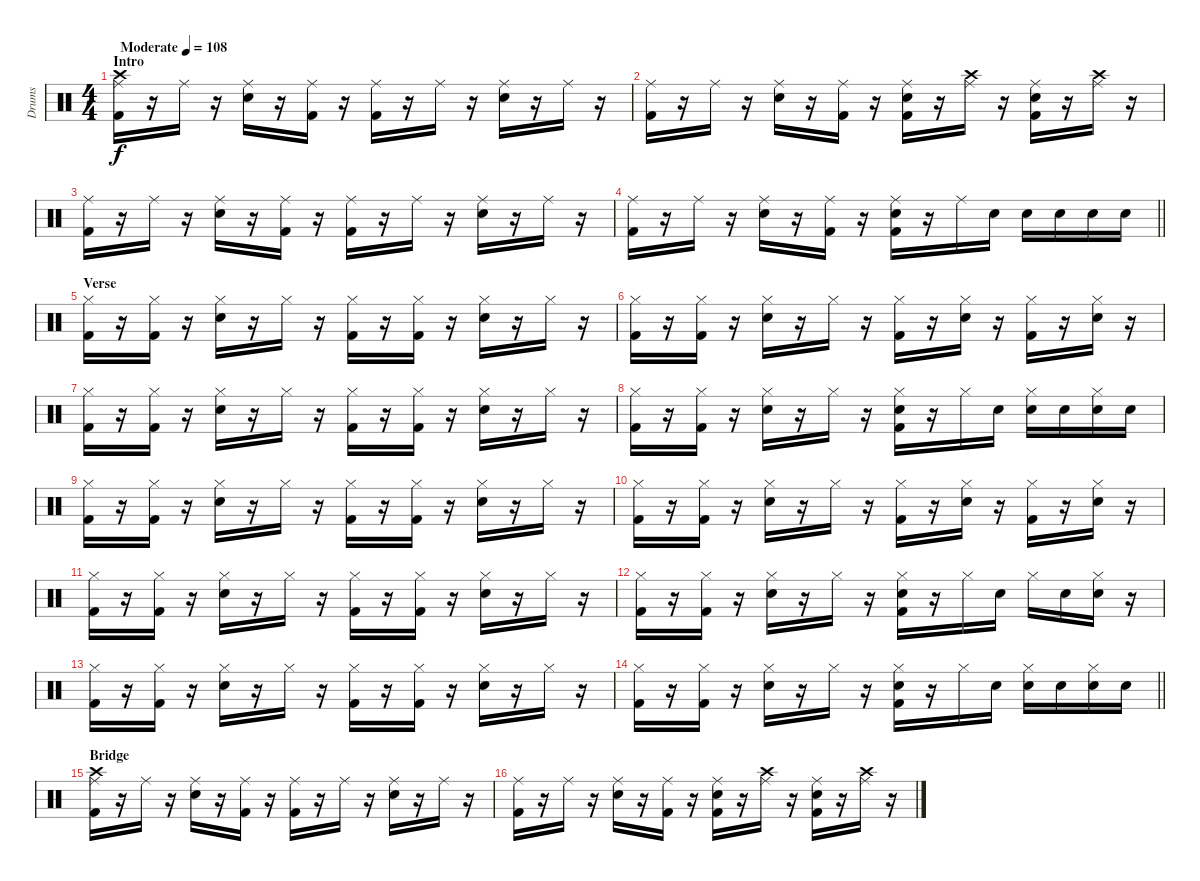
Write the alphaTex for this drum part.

\track ("Drums" "Drums") {instrument percussion}
\staff {score}
\articulation defaults
\ts (4 4)
\section ("" "Intro")
\tempo (108 "Moderate")
\clef neutral
\ks c
("Crash high (hit)" "Ride (middle)" "Kick (hit) 2").16{dy f} r.16 "Ride (middle)".16 r.16 ("Snare (hit) 2" "Ride (middle)").16 r.16 ("Ride (middle)" "Kick (hit) 2").16 r.16 ("Ride (middle)" "Kick (hit) 2").16 r.16 "Ride (middle)".16 r.16 ("Snare (hit) 2" "Ride (middle)").16 r.16 "Ride (middle)".16 r.16 |
("Ride (middle)" "Kick (hit) 2").16 r.16 "Ride (middle)".16 r.16 ("Snare (hit) 2" "Ride (middle)").16 r.16 ("Ride (middle)" "Kick (hit) 2").16 r.16 ("Snare (hit) 2" "Ride (middle)" "Kick (hit) 2").16 r.16 ("Crash high (hit)" "Ride (middle)").16 r.16 ("Snare (hit) 2" "Ride (middle)" "Kick (hit) 2").16 r.16 ("Crash high (hit)" "Ride (middle)").16 r.16 |
("Ride (middle)" "Kick (hit) 2").16 r.16 "Ride (middle)".16 r.16 ("Snare (hit) 2" "Ride (middle)").16 r.16 ("Ride (middle)" "Kick (hit) 2").16 r.16 ("Ride (middle)" "Kick (hit) 2").16 r.16 "Ride (middle)".16 r.16 ("Snare (hit) 2" "Ride (middle)").16 r.16 "Ride (middle)".16 r.16 |
\barLineRight lightlight
("Ride (middle)" "Kick (hit) 2").16 r.16 "Ride (middle)".16 r.16 ("Snare (hit) 2" "Ride (middle)").16 r.16 ("Ride (middle)" "Kick (hit) 2").16 r.16 ("Snare (hit) 2" "Ride (middle)" "Kick (hit) 2").16 r.16 "Ride (middle)".16 "Snare (hit) 2".16 "Snare (hit) 2".16 "Snare (hit) 2".16 "Snare (hit) 2".16 "Snare (hit) 2".16 |
\section ("" "Verse")
("Hi-Hat (closed)" "Kick (hit) 2").16 r.16 ("Hi-Hat (closed)" "Kick (hit) 2").16 r.16 ("Snare (hit) 2" "Hi-Hat (closed)").16 r.16 "Hi-Hat (closed)".16 r.16 ("Hi-Hat (closed)" "Kick (hit) 2").16 r.16 ("Hi-Hat (closed)" "Kick (hit) 2").16 r.16 ("Snare (hit) 2" "Hi-Hat (closed)").16 r.16 "Hi-Hat (closed)".16 r.16 |
("Hi-Hat (closed)" "Kick (hit) 2").16 r.16 ("Hi-Hat (closed)" "Kick (hit) 2").16 r.16 ("Snare (hit) 2" "Hi-Hat (closed)").16 r.16 "Hi-Hat (closed)".16 r.16 ("Hi-Hat (closed)" "Kick (hit) 2").16 r.16 ("Snare (hit) 2" "Hi-Hat (closed)").16 r.16 ("Hi-Hat (closed)" "Kick (hit) 2").16 r.16 ("Snare (hit) 2" "Hi-Hat (closed)").16 r.16 |
("Hi-Hat (closed)" "Kick (hit) 2").16 r.16 ("Hi-Hat (closed)" "Kick (hit) 2").16 r.16 ("Snare (hit) 2" "Hi-Hat (closed)").16 r.16 "Hi-Hat (closed)".16 r.16 ("Hi-Hat (closed)" "Kick (hit) 2").16 r.16 ("Hi-Hat (closed)" "Kick (hit) 2").16 r.16 ("Snare (hit) 2" "Hi-Hat (closed)").16 r.16 "Hi-Hat (closed)".16 r.16 |
("Hi-Hat (closed)" "Kick (hit) 2").16 r.16 ("Hi-Hat (closed)" "Kick (hit) 2").16 r.16 ("Snare (hit) 2" "Hi-Hat (closed)").16 r.16 "Hi-Hat (closed)".16 r.16 ("Snare (hit) 2" "Hi-Hat (closed)" "Kick (hit) 2").16 r.16 "Hi-Hat (closed)".16 "Snare (hit) 2".16 ("Snare (hit) 2" "Hi-Hat (closed)").16 "Snare (hit) 2".16 ("Snare (hit) 2" "Hi-Hat (closed)").16 "Snare (hit) 2".16 |
("Hi-Hat (closed)" "Kick (hit) 2").16 r.16 ("Hi-Hat (closed)" "Kick (hit) 2").16 r.16 ("Snare (hit) 2" "Hi-Hat (closed)").16 r.16 "Hi-Hat (closed)".16 r.16 ("Hi-Hat (closed)" "Kick (hit) 2").16 r.16 ("Hi-Hat (closed)" "Kick (hit) 2").16 r.16 ("Snare (hit) 2" "Hi-Hat (closed)").16 r.16 "Hi-Hat (closed)".16 r.16 |
("Hi-Hat (closed)" "Kick (hit) 2").16 r.16 ("Hi-Hat (closed)" "Kick (hit) 2").16 r.16 ("Snare (hit) 2" "Hi-Hat (closed)").16 r.16 "Hi-Hat (closed)".16 r.16 ("Hi-Hat (closed)" "Kick (hit) 2").16 r.16 ("Snare (hit) 2" "Hi-Hat (closed)").16 r.16 ("Hi-Hat (closed)" "Kick (hit) 2").16 r.16 ("Snare (hit) 2" "Hi-Hat (closed)").16 r.16 |
("Hi-Hat (closed)" "Kick (hit) 2").16 r.16 ("Hi-Hat (closed)" "Kick (hit) 2").16 r.16 ("Snare (hit) 2" "Hi-Hat (closed)").16 r.16 "Hi-Hat (closed)".16 r.16 ("Hi-Hat (closed)" "Kick (hit) 2").16 r.16 ("Hi-Hat (closed)" "Kick (hit) 2").16 r.16 ("Snare (hit) 2" "Hi-Hat (closed)").16 r.16 "Hi-Hat (closed)".16 r.16 |
("Hi-Hat (closed)" "Kick (hit) 2").16 r.16 ("Hi-Hat (closed)" "Kick (hit) 2").16 r.16 ("Snare (hit) 2" "Hi-Hat (closed)").16 r.16 "Hi-Hat (closed)".16 r.16 ("Snare (hit) 2" "Hi-Hat (closed)" "Kick (hit) 2").16 r.16 "Hi-Hat (closed)".16 "Snare (hit) 2".16 "Hi-Hat (closed)".16 "Snare (hit) 2".16 ("Snare (hit) 2" "Hi-Hat (closed)").16 r.16 |
("Hi-Hat (closed)" "Kick (hit) 2").16 r.16 ("Hi-Hat (closed)" "Kick (hit) 2").16 r.16 ("Snare (hit) 2" "Hi-Hat (closed)").16 r.16 "Hi-Hat (closed)".16 r.16 ("Hi-Hat (closed)" "Kick (hit) 2").16 r.16 ("Hi-Hat (closed)" "Kick (hit) 2").16 r.16 ("Snare (hit) 2" "Hi-Hat (closed)").16 r.16 "Hi-Hat (closed)".16 r.16 |
\barLineRight lightlight
("Hi-Hat (closed)" "Kick (hit) 2").16 r.16 ("Hi-Hat (closed)" "Kick (hit) 2").16 r.16 ("Snare (hit) 2" "Hi-Hat (closed)").16 r.16 "Hi-Hat (closed)".16 r.16 ("Snare (hit) 2" "Hi-Hat (closed)" "Kick (hit) 2").16 r.16 "Hi-Hat (closed)".16 "Snare (hit) 2".16 ("Snare (hit) 2" "Hi-Hat (closed)").16 "Snare (hit) 2".16 ("Snare (hit) 2" "Hi-Hat (closed)").16 "Snare (hit) 2".16 |
\section ("" "Bridge")
("Crash high (hit)" "Ride (middle)" "Kick (hit) 2").16 r.16 "Ride (middle)".16 r.16 ("Snare (hit) 2" "Ride (middle)").16 r.16 ("Ride (middle)" "Kick (hit) 2").16 r.16 ("Ride (middle)" "Kick (hit) 2").16 r.16 "Ride (middle)".16 r.16 ("Snare (hit) 2" "Ride (middle)").16 r.16 "Ride (middle)".16 r.16 |
("Ride (middle)" "Kick (hit) 2").16 r.16 "Ride (middle)".16 r.16 ("Snare (hit) 2" "Ride (middle)").16 r.16 ("Ride (middle)" "Kick (hit) 2").16 r.16 ("Snare (hit) 2" "Ride (middle)" "Kick (hit) 2").16 r.16 ("Crash high (hit)" "Ride (middle)").16 r.16 ("Snare (hit) 2" "Ride (middle)" "Kick (hit) 2").16 r.16 ("Crash high (hit)" "Ride (middle)").16 r.16
